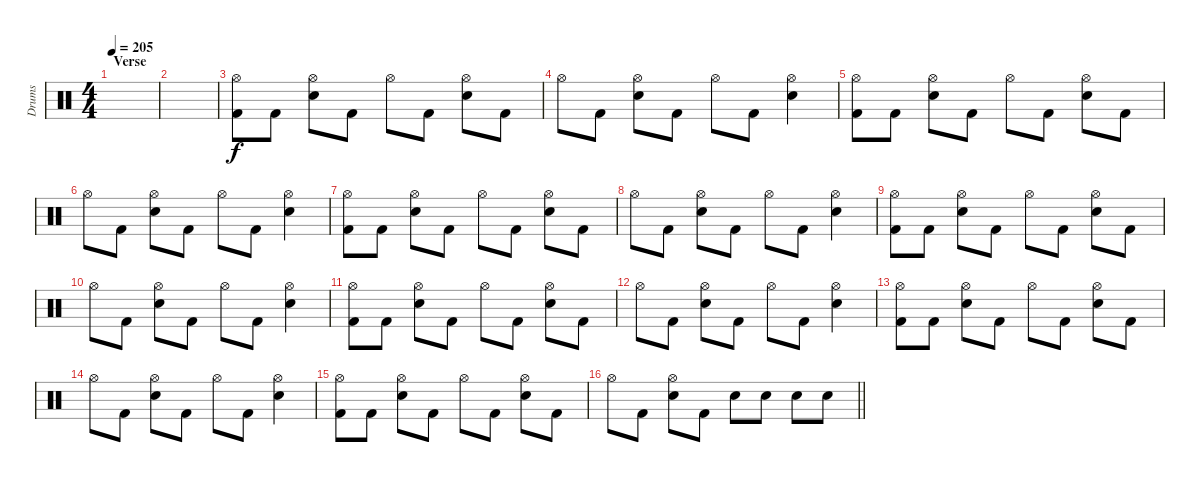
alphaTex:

\track ("Drums" "Drums") {instrument percussion}
\staff {score}
\articulation defaults
\ts (4 4)
\section ("" "Verse")
\tempo 205
\clef neutral
\ks c
|
|
("Hi-Hat (open)" "Kick (hit) 2").8 "Kick (hit) 2".8 ("Hi-Hat (open)" "Snare (hit) 2").8 "Kick (hit) 2".8 "Hi-Hat (open)".8 "Kick (hit) 2".8 ("Hi-Hat (open)" "Snare (hit) 2").8 "Kick (hit) 2".8 |
"Hi-Hat (open)".8 "Kick (hit) 2".8 ("Hi-Hat (open)" "Snare (hit) 2").8 "Kick (hit) 2".8 "Hi-Hat (open)".8 "Kick (hit) 2".8 ("Hi-Hat (open)" "Snare (hit) 2").4 |
("Hi-Hat (open)" "Kick (hit) 2").8 "Kick (hit) 2".8 ("Hi-Hat (open)" "Snare (hit) 2").8 "Kick (hit) 2".8 "Hi-Hat (open)".8 "Kick (hit) 2".8 ("Hi-Hat (open)" "Snare (hit) 2").8 "Kick (hit) 2".8 |
"Hi-Hat (open)".8 "Kick (hit) 2".8 ("Hi-Hat (open)" "Snare (hit) 2").8 "Kick (hit) 2".8 "Hi-Hat (open)".8 "Kick (hit) 2".8 ("Hi-Hat (open)" "Snare (hit) 2").4 |
("Hi-Hat (open)" "Kick (hit) 2").8 "Kick (hit) 2".8 ("Hi-Hat (open)" "Snare (hit) 2").8 "Kick (hit) 2".8 "Hi-Hat (open)".8 "Kick (hit) 2".8 ("Hi-Hat (open)" "Snare (hit) 2").8 "Kick (hit) 2".8 |
"Hi-Hat (open)".8 "Kick (hit) 2".8 ("Hi-Hat (open)" "Snare (hit) 2").8 "Kick (hit) 2".8 "Hi-Hat (open)".8 "Kick (hit) 2".8 ("Hi-Hat (open)" "Snare (hit) 2").4 |
("Hi-Hat (open)" "Kick (hit) 2").8 "Kick (hit) 2".8 ("Hi-Hat (open)" "Snare (hit) 2").8 "Kick (hit) 2".8 "Hi-Hat (open)".8 "Kick (hit) 2".8 ("Hi-Hat (open)" "Snare (hit) 2").8 "Kick (hit) 2".8 |
"Hi-Hat (open)".8 "Kick (hit) 2".8 ("Hi-Hat (open)" "Snare (hit) 2").8 "Kick (hit) 2".8 "Hi-Hat (open)".8 "Kick (hit) 2".8 ("Hi-Hat (open)" "Snare (hit) 2").4 |
("Hi-Hat (open)" "Kick (hit) 2").8 "Kick (hit) 2".8 ("Hi-Hat (open)" "Snare (hit) 2").8 "Kick (hit) 2".8 "Hi-Hat (open)".8 "Kick (hit) 2".8 ("Hi-Hat (open)" "Snare (hit) 2").8 "Kick (hit) 2".8 |
"Hi-Hat (open)".8 "Kick (hit) 2".8 ("Hi-Hat (open)" "Snare (hit) 2").8 "Kick (hit) 2".8 "Hi-Hat (open)".8 "Kick (hit) 2".8 ("Hi-Hat (open)" "Snare (hit) 2").4 |
("Hi-Hat (open)" "Kick (hit) 2").8 "Kick (hit) 2".8 ("Hi-Hat (open)" "Snare (hit) 2").8 "Kick (hit) 2".8 "Hi-Hat (open)".8 "Kick (hit) 2".8 ("Hi-Hat (open)" "Snare (hit) 2").8 "Kick (hit) 2".8 |
"Hi-Hat (open)".8 "Kick (hit) 2".8 ("Hi-Hat (open)" "Snare (hit) 2").8 "Kick (hit) 2".8 "Hi-Hat (open)".8 "Kick (hit) 2".8 ("Hi-Hat (open)" "Snare (hit) 2").4 |
("Hi-Hat (open)" "Kick (hit) 2").8 "Kick (hit) 2".8 ("Hi-Hat (open)" "Snare (hit) 2").8 "Kick (hit) 2".8 "Hi-Hat (open)".8 "Kick (hit) 2".8 ("Hi-Hat (open)" "Snare (hit) 2").8 "Kick (hit) 2".8 |
\barLineRight lightlight "Hi-Hat (open)".8 "Kick (hit) 2".8
("Hi-Hat (open)" "Snare (hit) 2").8 "Kick (hit) 2".8 "Snare (hit) 2".8 "Snare (hit) 2".8 "Snare (hit) 2".8 "Snare (hit) 2".8
